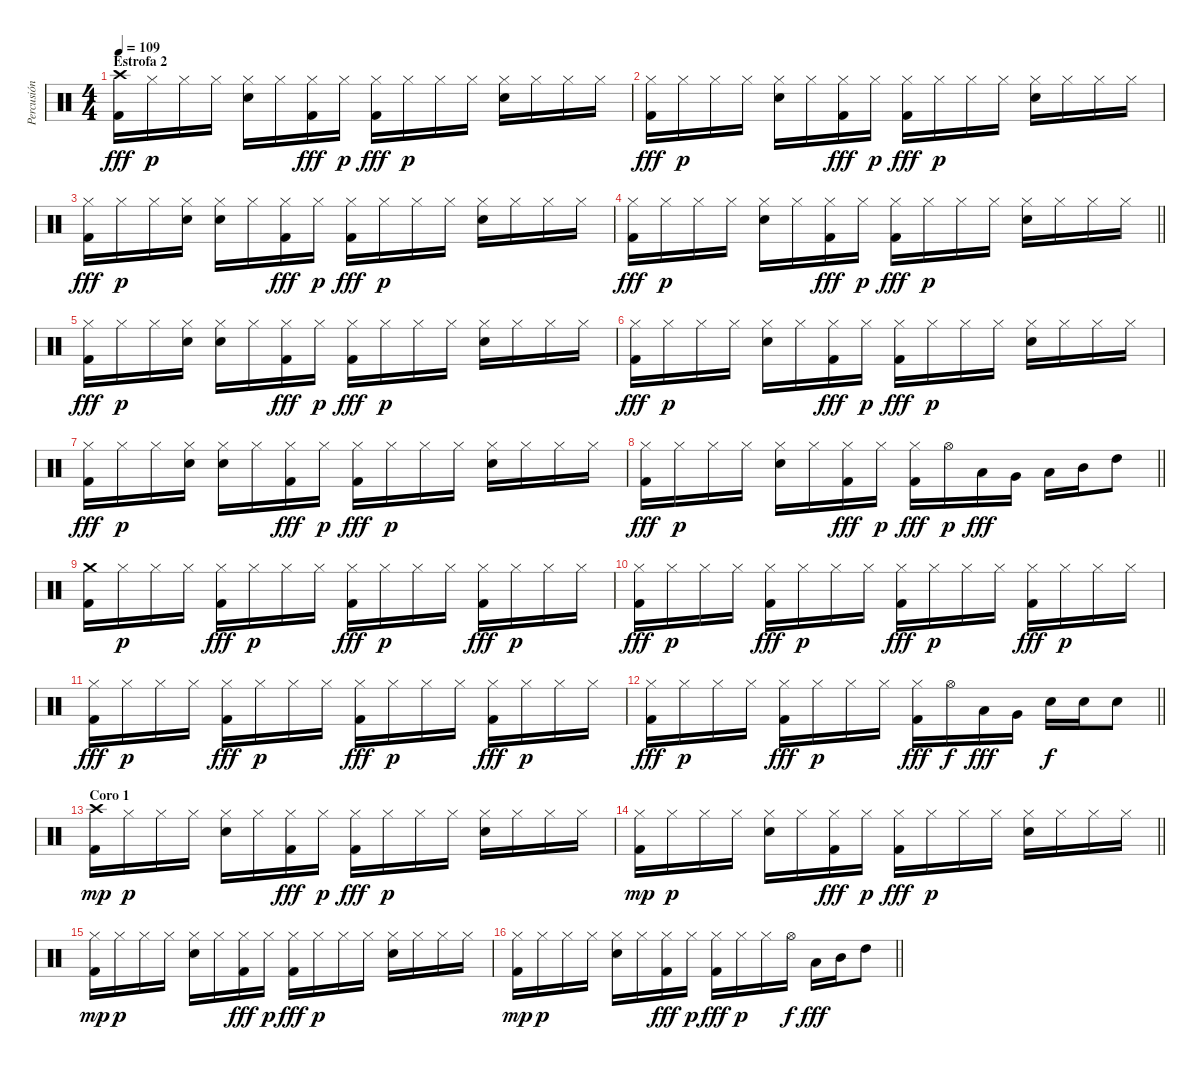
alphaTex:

\track ("Percusión" "Percusión") {instrument percussion}
\staff {score}
\articulation defaults
\ts (4 4)
\section ("" "Estrofa 2")
\tempo 109
\clef neutral
\ks c
("Crash high (hit)" "Kick (hit) 2").16{dy fff} "Hi-Hat (closed)".16{dy p} "Hi-Hat (closed)".16 "Hi-Hat (closed)".16 ("Hi-Hat (closed)" "Snare (hit) 2").16 "Hi-Hat (closed)".16 ("Hi-Hat (closed)" "Kick (hit) 2").16{dy fff} "Hi-Hat (closed)".16{dy p} ("Hi-Hat (closed)" "Kick (hit) 2").16{dy fff} "Hi-Hat (closed)".16{dy p} "Hi-Hat (closed)".16 "Hi-Hat (closed)".16 ("Hi-Hat (closed)" "Snare (hit) 2").16 "Hi-Hat (closed)".16 "Hi-Hat (closed)".16 "Hi-Hat (closed)".16 |
("Hi-Hat (closed)" "Kick (hit) 2").16{dy fff} "Hi-Hat (closed)".16{dy p} "Hi-Hat (closed)".16 "Hi-Hat (closed)".16 ("Hi-Hat (closed)" "Snare (hit) 2").16 "Hi-Hat (closed)".16 ("Hi-Hat (closed)" "Kick (hit) 2").16{dy fff} "Hi-Hat (closed)".16{dy p} ("Hi-Hat (closed)" "Kick (hit) 2").16{dy fff} "Hi-Hat (closed)".16{dy p} "Hi-Hat (closed)".16 "Hi-Hat (closed)".16 ("Hi-Hat (closed)" "Snare (hit) 2").16 "Hi-Hat (closed)".16 "Hi-Hat (closed)".16 "Hi-Hat (closed)".16 |
("Hi-Hat (closed)" "Kick (hit) 2").16{dy fff} "Hi-Hat (closed)".16{dy p} "Hi-Hat (closed)".16 ("Hi-Hat (closed)" "Snare (hit) 2").16 ("Hi-Hat (closed)" "Snare (hit) 2").16 "Hi-Hat (closed)".16 ("Hi-Hat (closed)" "Kick (hit) 2").16{dy fff} "Hi-Hat (closed)".16{dy p} ("Hi-Hat (closed)" "Kick (hit) 2").16{dy fff} "Hi-Hat (closed)".16{dy p} "Hi-Hat (closed)".16 "Hi-Hat (closed)".16 ("Hi-Hat (closed)" "Snare (hit) 2").16 "Hi-Hat (closed)".16 "Hi-Hat (closed)".16 "Hi-Hat (closed)".16 |
\barLineRight lightlight
("Hi-Hat (closed)" "Kick (hit) 2").16{dy fff} "Hi-Hat (closed)".16{dy p} "Hi-Hat (closed)".16 "Hi-Hat (closed)".16 ("Hi-Hat (closed)" "Snare (hit) 2").16 "Hi-Hat (closed)".16 ("Hi-Hat (closed)" "Kick (hit) 2").16{dy fff} "Hi-Hat (closed)".16{dy p} ("Hi-Hat (closed)" "Kick (hit) 2").16{dy fff} "Hi-Hat (closed)".16{dy p} "Hi-Hat (closed)".16 "Hi-Hat (closed)".16 ("Hi-Hat (closed)" "Snare (hit) 2").16 "Hi-Hat (closed)".16 "Hi-Hat (closed)".16 "Hi-Hat (closed)".16 |
("Hi-Hat (closed)" "Kick (hit) 2").16{dy fff} "Hi-Hat (closed)".16{dy p} "Hi-Hat (closed)".16 ("Hi-Hat (closed)" "Snare (hit) 2").16 ("Hi-Hat (closed)" "Snare (hit) 2").16 "Hi-Hat (closed)".16 ("Hi-Hat (closed)" "Kick (hit) 2").16{dy fff} "Hi-Hat (closed)".16{dy p} ("Hi-Hat (closed)" "Kick (hit) 2").16{dy fff} "Hi-Hat (closed)".16{dy p} "Hi-Hat (closed)".16 "Hi-Hat (closed)".16 ("Hi-Hat (closed)" "Snare (hit) 2").16 "Hi-Hat (closed)".16 "Hi-Hat (closed)".16 "Hi-Hat (closed)".16 |
("Hi-Hat (closed)" "Kick (hit) 2").16{dy fff} "Hi-Hat (closed)".16{dy p} "Hi-Hat (closed)".16 "Hi-Hat (closed)".16 ("Hi-Hat (closed)" "Snare (hit) 2").16 "Hi-Hat (closed)".16 ("Hi-Hat (closed)" "Kick (hit) 2").16{dy fff} "Hi-Hat (closed)".16{dy p} ("Hi-Hat (closed)" "Kick (hit) 2").16{dy fff} "Hi-Hat (closed)".16{dy p} "Hi-Hat (closed)".16 "Hi-Hat (closed)".16 ("Hi-Hat (closed)" "Snare (hit) 2").16 "Hi-Hat (closed)".16 "Hi-Hat (closed)".16 "Hi-Hat (closed)".16 |
("Hi-Hat (closed)" "Kick (hit) 2").16{dy fff} "Hi-Hat (closed)".16{dy p} "Hi-Hat (closed)".16 ("Hi-Hat (closed)" "Snare (hit) 2").16 ("Hi-Hat (closed)" "Snare (hit) 2").16 "Hi-Hat (closed)".16 ("Hi-Hat (closed)" "Kick (hit) 2").16{dy fff} "Hi-Hat (closed)".16{dy p} ("Hi-Hat (closed)" "Kick (hit) 2").16{dy fff} "Hi-Hat (closed)".16{dy p} "Hi-Hat (closed)".16 "Hi-Hat (closed)".16 ("Hi-Hat (closed)" "Snare (hit) 2").16 "Hi-Hat (closed)".16 "Hi-Hat (closed)".16 "Hi-Hat (closed)".16 |
\barLineRight lightlight
("Hi-Hat (closed)" "Kick (hit) 2").16{dy fff} "Hi-Hat (closed)".16{dy p} "Hi-Hat (closed)".16 "Hi-Hat (closed)".16 ("Hi-Hat (closed)" "Snare (hit) 2").16 "Hi-Hat (closed)".16 ("Hi-Hat (closed)" "Kick (hit) 2").16{dy fff} "Hi-Hat (closed)".16{dy p} ("Hi-Hat (closed)" "Kick (hit) 2").16{dy fff} "Hi-Hat (open)".16{dy p} "Low Floor Tom (hit)".16{dy fff} "Very Low Tom (hit)".16 "Low Tom (hit)".16 "Mid Tom (hit)".16 "High Tom (hit)".8 |
("Crash medium (hit)" "Kick (hit) 2").16 "Hi-Hat (closed)".16{dy p} "Hi-Hat (closed)".16 "Hi-Hat (closed)".16 ("Hi-Hat (closed)" "Kick (hit) 2").16{dy fff} "Hi-Hat (closed)".16{dy p} "Hi-Hat (closed)".16 "Hi-Hat (closed)".16 ("Hi-Hat (closed)" "Kick (hit) 2").16{dy fff} "Hi-Hat (closed)".16{dy p} "Hi-Hat (closed)".16 "Hi-Hat (closed)".16 ("Hi-Hat (closed)" "Kick (hit) 2").16{dy fff} "Hi-Hat (closed)".16{dy p} "Hi-Hat (closed)".16 "Hi-Hat (closed)".16 |
("Hi-Hat (closed)" "Kick (hit) 2").16{dy fff} "Hi-Hat (closed)".16{dy p} "Hi-Hat (closed)".16 "Hi-Hat (closed)".16 ("Hi-Hat (closed)" "Kick (hit) 2").16{dy fff} "Hi-Hat (closed)".16{dy p} "Hi-Hat (closed)".16 "Hi-Hat (closed)".16 ("Hi-Hat (closed)" "Kick (hit) 2").16{dy fff} "Hi-Hat (closed)".16{dy p} "Hi-Hat (closed)".16 "Hi-Hat (closed)".16 ("Hi-Hat (closed)" "Kick (hit) 2").16{dy fff} "Hi-Hat (closed)".16{dy p} "Hi-Hat (closed)".16 "Hi-Hat (closed)".16 |
("Hi-Hat (closed)" "Kick (hit) 2").16{dy fff} "Hi-Hat (closed)".16{dy p} "Hi-Hat (closed)".16 "Hi-Hat (closed)".16 ("Hi-Hat (closed)" "Kick (hit) 2").16{dy fff} "Hi-Hat (closed)".16{dy p} "Hi-Hat (closed)".16 "Hi-Hat (closed)".16 ("Hi-Hat (closed)" "Kick (hit) 2").16{dy fff} "Hi-Hat (closed)".16{dy p} "Hi-Hat (closed)".16 "Hi-Hat (closed)".16 ("Hi-Hat (closed)" "Kick (hit) 2").16{dy fff} "Hi-Hat (closed)".16{dy p} "Hi-Hat (closed)".16 "Hi-Hat (closed)".16 |
\barLineRight lightlight
("Hi-Hat (closed)" "Kick (hit) 2").16{dy fff} "Hi-Hat (closed)".16{dy p} "Hi-Hat (closed)".16 "Hi-Hat (closed)".16 ("Hi-Hat (closed)" "Kick (hit) 2").16{dy fff} "Hi-Hat (closed)".16{dy p} "Hi-Hat (closed)".16 "Hi-Hat (closed)".16 ("Hi-Hat (closed)" "Kick (hit) 2").16{dy fff} "Hi-Hat (open)".16{dy f} "Low Floor Tom (hit)".16{dy fff} "Very Low Tom (hit)".16 "Snare (hit) 2".16{dy f} "Snare (hit) 2".16 "Snare (hit) 2".8 |
\section ("" "Coro 1")
("Crash high (hit)" "Kick (hit) 2").16{dy mp} "Hi-Hat (closed)".16{dy p} "Hi-Hat (closed)".16 "Hi-Hat (closed)".16 ("Hi-Hat (closed)" "Snare (hit) 2").16 "Hi-Hat (closed)".16 ("Hi-Hat (closed)" "Kick (hit) 2").16{dy fff} "Hi-Hat (closed)".16{dy p} ("Hi-Hat (closed)" "Kick (hit) 2").16{dy fff} "Hi-Hat (closed)".16{dy p} "Hi-Hat (closed)".16 "Hi-Hat (closed)".16 ("Hi-Hat (closed)" "Snare (hit) 2").16 "Hi-Hat (closed)".16 "Hi-Hat (closed)".16 "Hi-Hat (closed)".16 |
\barLineRight lightlight
("Hi-Hat (closed)" "Kick (hit) 2").16{dy mp} "Hi-Hat (closed)".16{dy p} "Hi-Hat (closed)".16 "Hi-Hat (closed)".16 ("Hi-Hat (closed)" "Snare (hit) 2").16 "Hi-Hat (closed)".16 ("Hi-Hat (closed)" "Kick (hit) 2").16{dy fff} "Hi-Hat (closed)".16{dy p} ("Hi-Hat (closed)" "Kick (hit) 2").16{dy fff} "Hi-Hat (closed)".16{dy p} "Hi-Hat (closed)".16 "Hi-Hat (closed)".16 ("Hi-Hat (closed)" "Snare (hit) 2").16 "Hi-Hat (closed)".16 "Hi-Hat (closed)".16 "Hi-Hat (closed)".16 |
("Hi-Hat (closed)" "Kick (hit) 2").16{dy mp} "Hi-Hat (closed)".16{dy p} "Hi-Hat (closed)".16 "Hi-Hat (closed)".16 ("Hi-Hat (closed)" "Snare (hit) 2").16 "Hi-Hat (closed)".16 ("Hi-Hat (closed)" "Kick (hit) 2").16{dy fff} "Hi-Hat (closed)".16{dy p} ("Hi-Hat (closed)" "Kick (hit) 2").16{dy fff} "Hi-Hat (closed)".16{dy p} "Hi-Hat (closed)".16 "Hi-Hat (closed)".16 ("Hi-Hat (closed)" "Snare (hit) 2").16 "Hi-Hat (closed)".16 "Hi-Hat (closed)".16 "Hi-Hat (closed)".16 |
\barLineRight lightlight
("Hi-Hat (closed)" "Kick (hit) 2").16{dy mp} "Hi-Hat (closed)".16{dy p} "Hi-Hat (closed)".16 "Hi-Hat (closed)".16 ("Hi-Hat (closed)" "Snare (hit) 2").16 "Hi-Hat (closed)".16 ("Hi-Hat (closed)" "Kick (hit) 2").16{dy fff} "Hi-Hat (closed)".16{dy p} ("Hi-Hat (closed)" "Kick (hit) 2").16{dy fff} "Hi-Hat (closed)".16{dy p} "Hi-Hat (closed)".16 "Hi-Hat (open)".16{dy f} "Low Tom (hit)".16{dy fff} "Mid Tom (hit)".16 "High Tom (hit)".8
